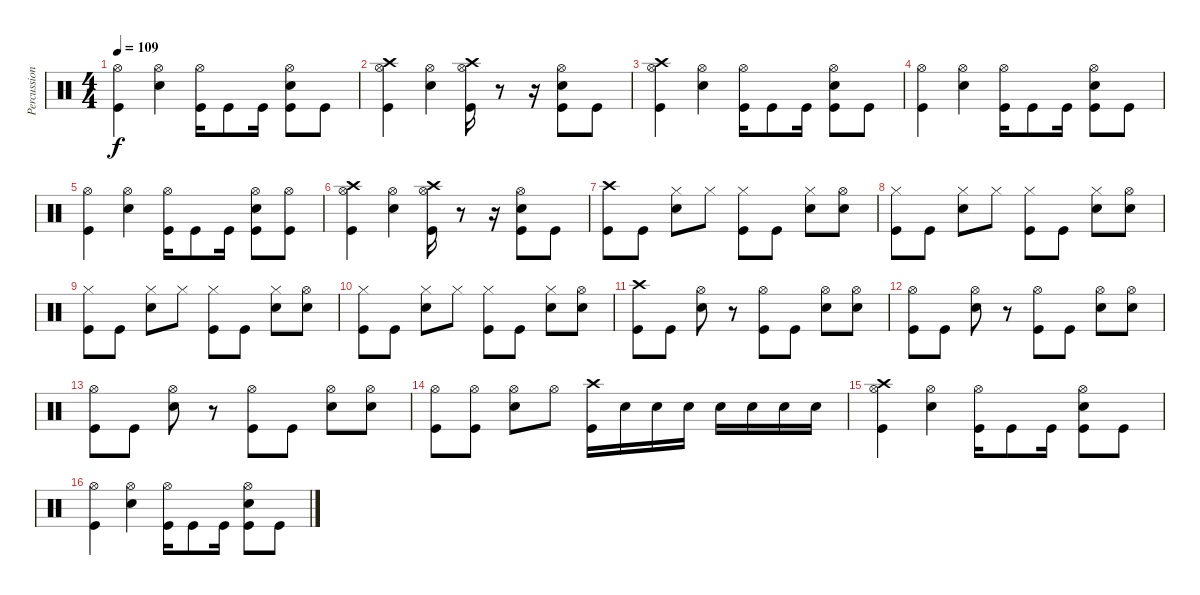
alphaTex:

\track ("Percussion" "Percussion") {instrument percussion}
\staff {score}
\articulation defaults
\ts (4 4)
\tempo 109
\clef neutral
\ks c
("Hi-Hat (open)" "Kick (hit)").4{dy f} ("Hi-Hat (open)" "Electric Snare (hit)").4 ("Hi-Hat (open)" "Kick (hit)").16 "Kick (hit)".8 "Kick (hit)".16 ("Hi-Hat (open)" "Electric Snare (hit)" "Kick (hit)").8 "Kick (hit)".8 |
("Crash high (hit)" "Hi-Hat (open)" "Kick (hit)").4 ("Hi-Hat (open)" "Electric Snare (hit)").4 ("Hi-Hat (open)" "Crash high (hit)" "Kick (hit)").16 r.8 r.16 ("Hi-Hat (open)" "Electric Snare (hit)" "Kick (hit)").8 "Kick (hit)".8 |
("Crash high (hit)" "Hi-Hat (open)" "Kick (hit)").4 ("Hi-Hat (open)" "Electric Snare (hit)").4 ("Hi-Hat (open)" "Kick (hit)").16 "Kick (hit)".8 "Kick (hit)".16 ("Hi-Hat (open)" "Electric Snare (hit)" "Kick (hit)").8 "Kick (hit)".8 |
("Hi-Hat (open)" "Kick (hit)").4 ("Hi-Hat (open)" "Electric Snare (hit)").4 ("Hi-Hat (open)" "Kick (hit)").16 "Kick (hit)".8 "Kick (hit)".16 ("Hi-Hat (open)" "Electric Snare (hit)" "Kick (hit)").8 "Kick (hit)".8 |
("Hi-Hat (open)" "Kick (hit)").4 ("Hi-Hat (open)" "Electric Snare (hit)").4 ("Hi-Hat (open)" "Kick (hit)").16 "Kick (hit)".8 "Kick (hit)".16 ("Hi-Hat (open)" "Electric Snare (hit)" "Kick (hit)").8 ("Hi-Hat (open)" "Kick (hit)").8 |
("Crash high (hit)" "Hi-Hat (open)" "Kick (hit)").4 ("Hi-Hat (open)" "Electric Snare (hit)").4 ("Hi-Hat (open)" "Crash high (hit)" "Kick (hit)").16 r.8 r.16 ("Hi-Hat (open)" "Electric Snare (hit)" "Kick (hit)").8 "Kick (hit)".8 |
("Crash high (hit)" "Kick (hit)").8 "Kick (hit)".8 ("Hi-Hat (closed)" "Electric Snare (hit)").8 "Hi-Hat (closed)".8 ("Hi-Hat (closed)" "Kick (hit)").8 "Kick (hit)".8 ("Hi-Hat (closed)" "Electric Snare (hit)").8 ("Hi-Hat (open)" "Electric Snare (hit)").8 |
("Hi-Hat (closed)" "Kick (hit)").8 "Kick (hit)".8 ("Hi-Hat (closed)" "Electric Snare (hit)").8 "Hi-Hat (closed)".8 ("Hi-Hat (closed)" "Kick (hit)").8 "Kick (hit)".8 ("Hi-Hat (closed)" "Electric Snare (hit)").8 ("Hi-Hat (open)" "Electric Snare (hit)").8 |
("Hi-Hat (closed)" "Kick (hit)").8 "Kick (hit)".8 ("Hi-Hat (closed)" "Electric Snare (hit)").8 "Hi-Hat (closed)".8 ("Hi-Hat (closed)" "Kick (hit)").8 "Kick (hit)".8 ("Hi-Hat (closed)" "Electric Snare (hit)").8 ("Hi-Hat (open)" "Electric Snare (hit)").8 |
("Hi-Hat (closed)" "Kick (hit)").8 "Kick (hit)".8 ("Hi-Hat (closed)" "Electric Snare (hit)").8 "Hi-Hat (closed)".8 ("Hi-Hat (closed)" "Kick (hit)").8 "Kick (hit)".8 ("Hi-Hat (closed)" "Electric Snare (hit)").8 ("Hi-Hat (open)" "Electric Snare (hit)").8 |
("Crash high (hit)" "Kick (hit)").8 "Kick (hit)".8 ("Hi-Hat (open)" "Electric Snare (hit)").8 r.8 ("Hi-Hat (open)" "Kick (hit)").8 "Kick (hit)".8 ("Hi-Hat (open)" "Electric Snare (hit)").8 ("Hi-Hat (open)" "Electric Snare (hit)").8 |
("Hi-Hat (open)" "Kick (hit)").8 "Kick (hit)".8 ("Hi-Hat (open)" "Electric Snare (hit)").8 r.8 ("Hi-Hat (open)" "Kick (hit)").8 "Kick (hit)".8 ("Hi-Hat (open)" "Electric Snare (hit)").8 ("Hi-Hat (open)" "Electric Snare (hit)").8 |
("Hi-Hat (open)" "Kick (hit)").8 "Kick (hit)".8 ("Hi-Hat (open)" "Electric Snare (hit)").8 r.8 ("Hi-Hat (open)" "Kick (hit)").8 "Kick (hit)".8 ("Hi-Hat (open)" "Electric Snare (hit)").8 ("Hi-Hat (open)" "Electric Snare (hit)").8 |
("Hi-Hat (open)" "Kick (hit)").8 ("Hi-Hat (open)" "Kick (hit)").8 ("Hi-Hat (open)" "Electric Snare (hit)").8 "Hi-Hat (open)".8 ("Crash high (hit)" "Kick (hit)").16 "Electric Snare (hit)".16 "Electric Snare (hit)".16 "Electric Snare (hit)".16 "Electric Snare (hit)".16 "Electric Snare (hit)".16 "Electric Snare (hit)".16 "Electric Snare (hit)".16 |
("Crash high (hit)" "Hi-Hat (open)" "Kick (hit)").4 ("Hi-Hat (open)" "Electric Snare (hit)").4 ("Hi-Hat (open)" "Kick (hit)").16 "Kick (hit)".8 "Kick (hit)".16 ("Hi-Hat (open)" "Electric Snare (hit)" "Kick (hit)").8 "Kick (hit)".8 |
("Hi-Hat (open)" "Kick (hit)").4 ("Hi-Hat (open)" "Electric Snare (hit)").4 ("Hi-Hat (open)" "Kick (hit)").16 "Kick (hit)".8 "Kick (hit)".16 ("Hi-Hat (open)" "Electric Snare (hit)" "Kick (hit)").8 "Kick (hit)".8
